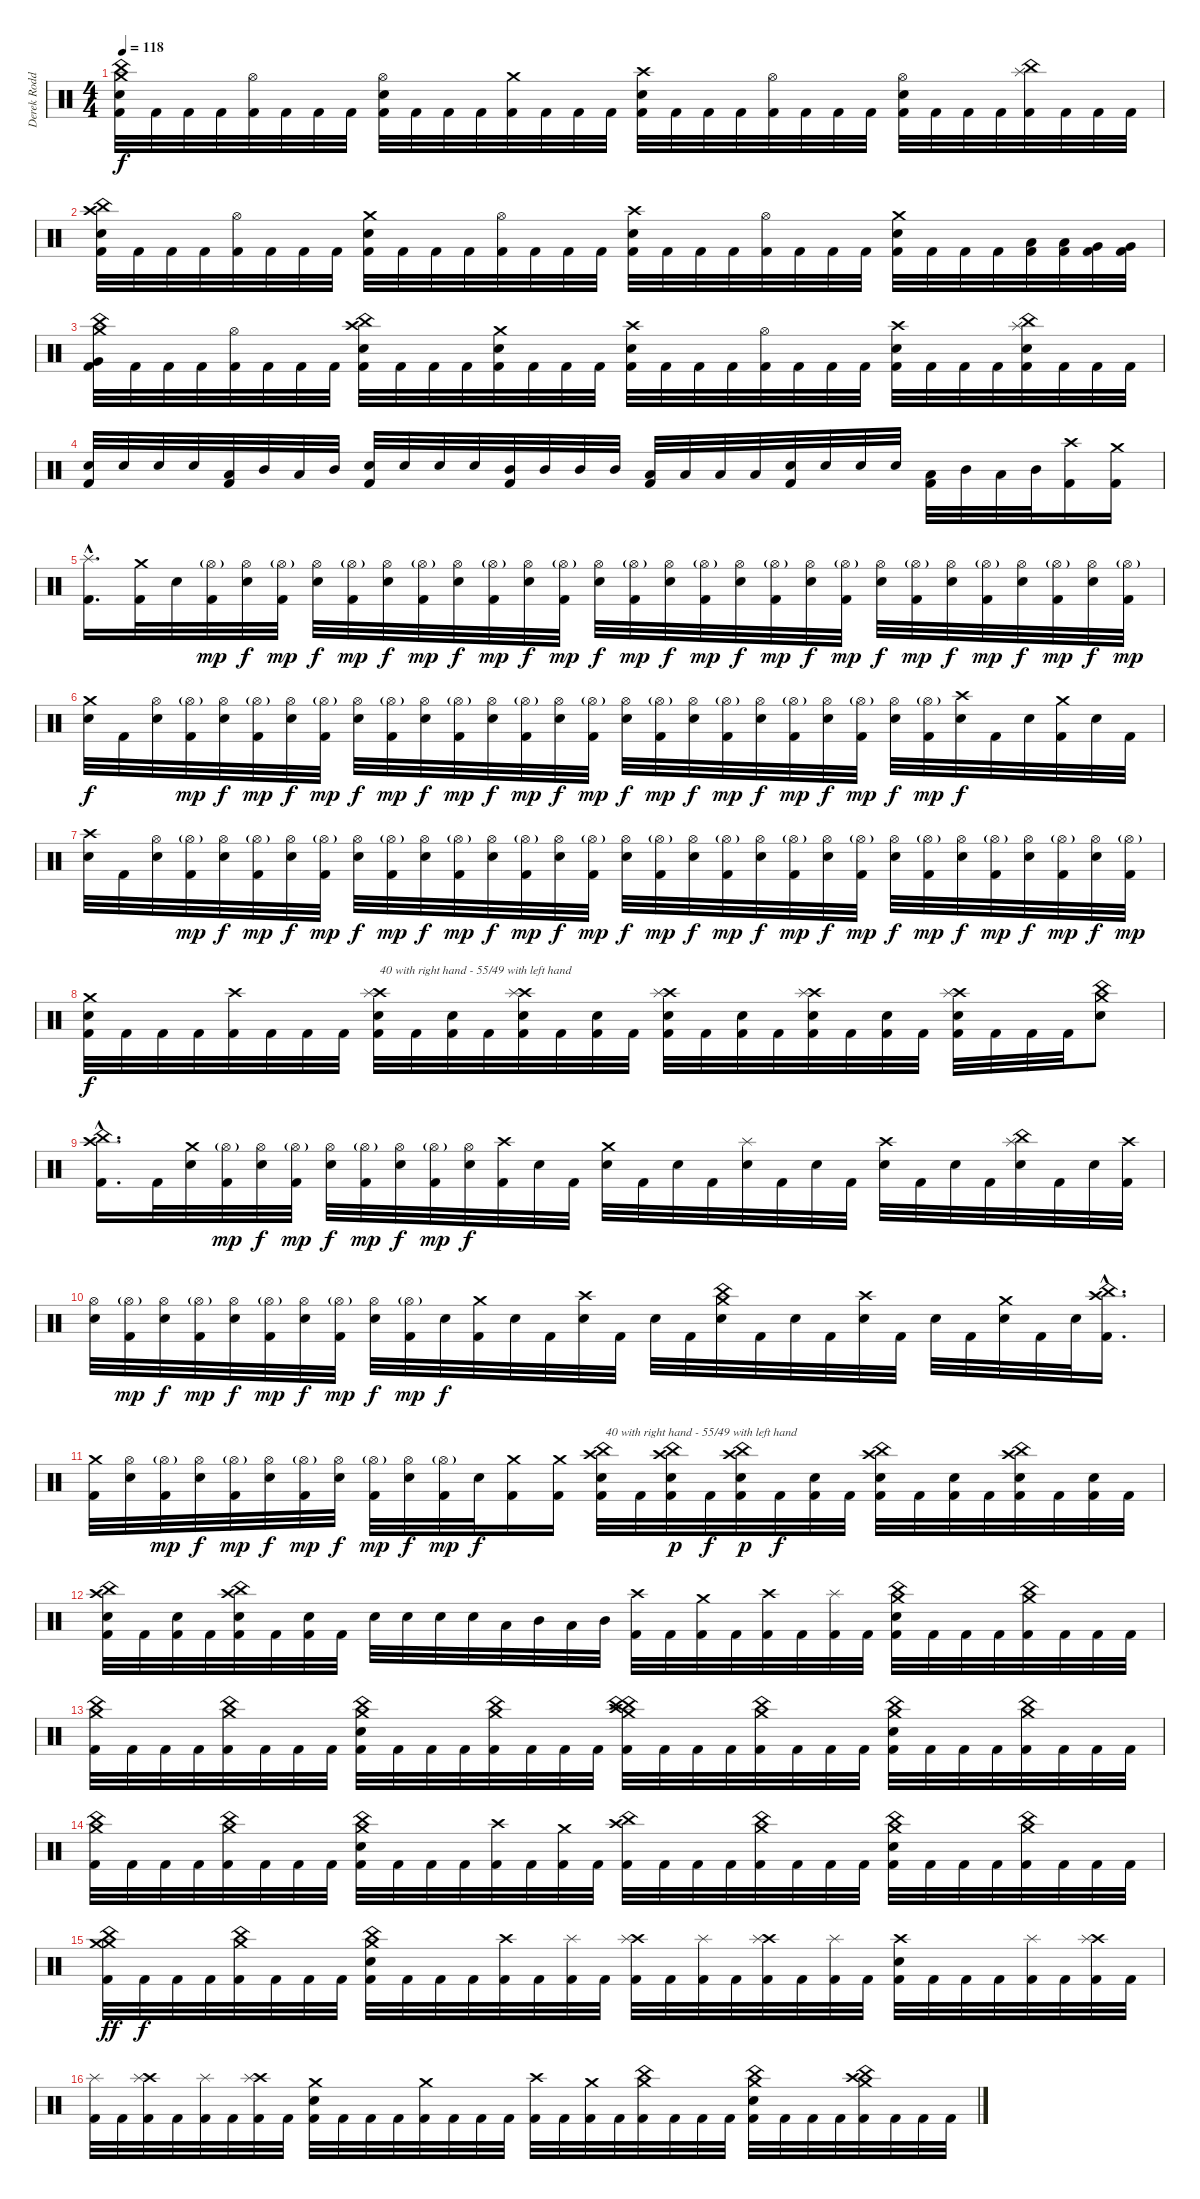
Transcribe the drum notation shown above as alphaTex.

\track ("Derek Roddy" "Derek Rodd") {instrument percussion}
\staff {score}
\articulation defaults
\ts (4 4)
\tempo 118
\clef neutral
\ks c
("Crash medium (hit)" "China (hit)" "Electric Snare (hit)" "Kick (hit) 2").32{dy f} "Kick (hit) 2".32 "Kick (hit) 2".32 "Kick (hit) 2".32 ("Hi-Hat (open)" "Kick (hit) 2").32 "Kick (hit) 2".32 "Kick (hit) 2".32 "Kick (hit) 2".32 ("Hi-Hat (open)" "Electric Snare (hit)" "Kick (hit) 2").32 "Kick (hit) 2".32 "Kick (hit) 2".32 "Kick (hit) 2".32 ("Crash medium (hit)" "Kick (hit) 2").32 "Kick (hit) 2".32 "Kick (hit) 2".32 "Kick (hit) 2".32 ("Crash high (hit)" "Electric Snare (hit)" "Kick (hit) 2").32 "Kick (hit) 2".32 "Kick (hit) 2".32 "Kick (hit) 2".32 ("Hi-Hat (open)" "Kick (hit) 2").32 "Kick (hit) 2".32 "Kick (hit) 2".32 "Kick (hit) 2".32 ("Hi-Hat (open)" "Electric Snare (hit)" "Kick (hit) 2").32 "Kick (hit) 2".32 "Kick (hit) 2".32 "Kick (hit) 2".32 ("Splash (hit)" "China (hit)" "Kick (hit) 2").32 "Kick (hit) 2".32 "Kick (hit) 2".32 "Kick (hit) 2".32 |
("Crash high (hit)" "China (hit)" "Electric Snare (hit)" "Kick (hit) 2").32 "Kick (hit) 2".32 "Kick (hit) 2".32 "Kick (hit) 2".32 ("Hi-Hat (open)" "Kick (hit) 2").32 "Kick (hit) 2".32 "Kick (hit) 2".32 "Kick (hit) 2".32 ("Crash medium (hit)" "Electric Snare (hit)" "Kick (hit) 2").32 "Kick (hit) 2".32 "Kick (hit) 2".32 "Kick (hit) 2".32 ("Hi-Hat (open)" "Kick (hit) 2").32 "Kick (hit) 2".32 "Kick (hit) 2".32 "Kick (hit) 2".32 ("Crash high (hit)" "Electric Snare (hit)" "Kick (hit) 2").32 "Kick (hit) 2".32 "Kick (hit) 2".32 "Kick (hit) 2".32 ("Hi-Hat (open)" "Kick (hit) 2").32 "Kick (hit) 2".32 "Kick (hit) 2".32 "Kick (hit) 2".32 ("Crash medium (hit)" "Electric Snare (hit)" "Kick (hit) 2").32 "Kick (hit) 2".32 "Kick (hit) 2".32 "Kick (hit) 2".32 ("Low Tom (hit)" "Kick (hit) 2").32 ("Low Tom (hit)" "Kick (hit) 2").32 ("Very Low Tom (hit)" "Kick (hit) 2").32 ("Very Low Tom (hit)" "Kick (hit) 2").32 |
("Crash medium (hit)" "China (hit)" "Very Low Tom (hit)" "Kick (hit) 2").32 "Kick (hit) 2".32 "Kick (hit) 2".32 "Kick (hit) 2".32 ("Hi-Hat (open)" "Kick (hit) 2").32 "Kick (hit) 2".32 "Kick (hit) 2".32 "Kick (hit) 2".32 ("Crash high (hit)" "China (hit)" "Electric Snare (hit)" "Kick (hit) 2").32 "Kick (hit) 2".32 "Kick (hit) 2".32 "Kick (hit) 2".32 ("Crash medium (hit)" "Electric Snare (hit)" "Kick (hit) 2").32 "Kick (hit) 2".32 "Kick (hit) 2".32 "Kick (hit) 2".32 ("Crash high (hit)" "Electric Snare (hit)" "Kick (hit) 2").32 "Kick (hit) 2".32 "Kick (hit) 2".32 "Kick (hit) 2".32 ("Hi-Hat (open)" "Kick (hit) 2").32 "Kick (hit) 2".32 "Kick (hit) 2".32 "Kick (hit) 2".32 ("Crash high (hit)" "Electric Snare (hit)" "Kick (hit) 2").32 "Kick (hit) 2".32 "Kick (hit) 2".32 "Kick (hit) 2".32 ("Splash (hit)" "China (hit)" "Electric Snare (hit)" "Kick (hit) 2").32 "Kick (hit) 2".32 "Kick (hit) 2".32 "Kick (hit) 2".32 |
("Electric Snare (hit)" "Kick (hit) 2").32 "Electric Snare (hit)".32 "Electric Snare (hit)".32 "Electric Snare (hit)".32 ("Low Tom (hit)" "Kick (hit) 2").32 "Mid Tom (hit)".32 "Low Tom (hit)".32 "Mid Tom (hit)".32 ("Electric Snare (hit)" "Kick (hit) 2").32 "Electric Snare (hit)".32 "Electric Snare (hit)".32 "Electric Snare (hit)".32 ("Mid Tom (hit)" "Kick (hit) 2").32 "Mid Tom (hit)".32 "Mid Tom (hit)".32 "Mid Tom (hit)".32 ("Low Tom (hit)" "Kick (hit) 2").32 "Low Tom (hit)".32 "Low Tom (hit)".32 "Low Tom (hit)".32 ("Electric Snare (hit)" "Kick (hit) 2").32 "Electric Snare (hit)".32 "Electric Snare (hit)".32 "Electric Snare (hit)".32 ("Low Tom (hit)" "Kick (hit) 2").32 "Mid Tom (hit)".32 "Low Tom (hit)".32 "Mid Tom (hit)".32 ("Crash high (hit)" "Kick (hit) 2").16 ("Crash medium (hit)" "Kick (hit) 2").16 |
("Splash (hit)"{hac} "Kick (hit) 2"{hac}).16{d} ("Crash medium (hit)" "Kick (hit) 2").32 "Electric Snare (hit)".32 ("Hi-Hat (open)"{g} "Kick (hit) 2").32{dy mp} ("Hi-Hat (open)" "Electric Snare (hit)").32{dy f} ("Hi-Hat (open)"{g} "Kick (hit) 2").32{dy mp} ("Hi-Hat (open)" "Electric Snare (hit)").32{dy f} ("Hi-Hat (open)"{g} "Kick (hit) 2").32{dy mp} ("Hi-Hat (open)" "Electric Snare (hit)").32{dy f} ("Hi-Hat (open)"{g} "Kick (hit) 2").32{dy mp} ("Hi-Hat (open)" "Electric Snare (hit)").32{dy f} ("Hi-Hat (open)"{g} "Kick (hit) 2").32{dy mp} ("Hi-Hat (open)" "Electric Snare (hit)").32{dy f} ("Hi-Hat (open)"{g} "Kick (hit) 2").32{dy mp} ("Hi-Hat (open)" "Electric Snare (hit)").32{dy f} ("Hi-Hat (open)"{g} "Kick (hit) 2").32{dy mp} ("Hi-Hat (open)" "Electric Snare (hit)").32{dy f} ("Hi-Hat (open)"{g} "Kick (hit) 2").32{dy mp} ("Hi-Hat (open)" "Electric Snare (hit)").32{dy f} ("Hi-Hat (open)"{g} "Kick (hit) 2").32{dy mp} ("Hi-Hat (open)" "Electric Snare (hit)").32{dy f} ("Hi-Hat (open)"{g} "Kick (hit) 2").32{dy mp} ("Hi-Hat (open)" "Electric Snare (hit)").32{dy f} ("Hi-Hat (open)"{g} "Kick (hit) 2").32{dy mp} ("Hi-Hat (open)" "Electric Snare (hit)").32{dy f} ("Hi-Hat (open)"{g} "Kick (hit) 2").32{dy mp} ("Hi-Hat (open)" "Electric Snare (hit)").32{dy f} ("Hi-Hat (open)"{g} "Kick (hit) 2").32{dy mp} ("Hi-Hat (open)" "Electric Snare (hit)").32{dy f} ("Hi-Hat (open)"{g} "Kick (hit) 2").32{dy mp} |
("Crash medium (hit)" "Electric Snare (hit)").32{dy f} "Kick (hit) 2".32 ("Hi-Hat (open)" "Electric Snare (hit)").32 ("Hi-Hat (open)"{g} "Kick (hit) 2").32{dy mp} ("Hi-Hat (open)" "Electric Snare (hit)").32{dy f} ("Hi-Hat (open)"{g} "Kick (hit) 2").32{dy mp} ("Hi-Hat (open)" "Electric Snare (hit)").32{dy f} ("Hi-Hat (open)"{g} "Kick (hit) 2").32{dy mp} ("Hi-Hat (open)" "Electric Snare (hit)").32{dy f} ("Hi-Hat (open)"{g} "Kick (hit) 2").32{dy mp} ("Hi-Hat (open)" "Electric Snare (hit)").32{dy f} ("Hi-Hat (open)"{g} "Kick (hit) 2").32{dy mp} ("Hi-Hat (open)" "Electric Snare (hit)").32{dy f} ("Hi-Hat (open)"{g} "Kick (hit) 2").32{dy mp} ("Hi-Hat (open)" "Electric Snare (hit)").32{dy f} ("Hi-Hat (open)"{g} "Kick (hit) 2").32{dy mp} ("Hi-Hat (open)" "Electric Snare (hit)").32{dy f} ("Hi-Hat (open)"{g} "Kick (hit) 2").32{dy mp} ("Hi-Hat (open)" "Electric Snare (hit)").32{dy f} ("Hi-Hat (open)"{g} "Kick (hit) 2").32{dy mp} ("Hi-Hat (open)" "Electric Snare (hit)").32{dy f} ("Hi-Hat (open)"{g} "Kick (hit) 2").32{dy mp} ("Hi-Hat (open)" "Electric Snare (hit)").32{dy f} ("Hi-Hat (open)"{g} "Kick (hit) 2").32{dy mp} ("Hi-Hat (open)" "Electric Snare (hit)").32{dy f} ("Hi-Hat (open)"{g} "Kick (hit) 2").32{dy mp} ("Crash high (hit)" "Electric Snare (hit)").32{dy f} "Kick (hit) 2".32 "Electric Snare (hit)".32 ("Crash medium (hit)" "Kick (hit) 2").32 "Electric Snare (hit)".32 "Kick (hit) 2".32 |
("Crash high (hit)" "Electric Snare (hit)").32 "Kick (hit) 2".32 ("Hi-Hat (open)" "Electric Snare (hit)").32 ("Hi-Hat (open)"{g} "Kick (hit) 2").32{dy mp} ("Hi-Hat (open)" "Electric Snare (hit)").32{dy f} ("Hi-Hat (open)"{g} "Kick (hit) 2").32{dy mp} ("Hi-Hat (open)" "Electric Snare (hit)").32{dy f} ("Hi-Hat (open)"{g} "Kick (hit) 2").32{dy mp} ("Hi-Hat (open)" "Electric Snare (hit)").32{dy f} ("Hi-Hat (open)"{g} "Kick (hit) 2").32{dy mp} ("Hi-Hat (open)" "Electric Snare (hit)").32{dy f} ("Hi-Hat (open)"{g} "Kick (hit) 2").32{dy mp} ("Hi-Hat (open)" "Electric Snare (hit)").32{dy f} ("Hi-Hat (open)"{g} "Kick (hit) 2").32{dy mp} ("Hi-Hat (open)" "Electric Snare (hit)").32{dy f} ("Hi-Hat (open)"{g} "Kick (hit) 2").32{dy mp} ("Hi-Hat (open)" "Electric Snare (hit)").32{dy f} ("Hi-Hat (open)"{g} "Kick (hit) 2").32{dy mp} ("Hi-Hat (open)" "Electric Snare (hit)").32{dy f} ("Hi-Hat (open)"{g} "Kick (hit) 2").32{dy mp} ("Hi-Hat (open)" "Electric Snare (hit)").32{dy f} ("Hi-Hat (open)"{g} "Kick (hit) 2").32{dy mp} ("Hi-Hat (open)" "Electric Snare (hit)").32{dy f} ("Hi-Hat (open)"{g} "Kick (hit) 2").32{dy mp} ("Hi-Hat (open)" "Electric Snare (hit)").32{dy f} ("Hi-Hat (open)"{g} "Kick (hit) 2").32{dy mp} ("Hi-Hat (open)" "Electric Snare (hit)").32{dy f} ("Hi-Hat (open)"{g} "Kick (hit) 2").32{dy mp} ("Hi-Hat (open)" "Electric Snare (hit)").32{dy f} ("Hi-Hat (open)"{g} "Kick (hit) 2").32{dy mp} ("Hi-Hat (open)" "Electric Snare (hit)").32{dy f} ("Hi-Hat (open)"{g} "Kick (hit) 2").32{dy mp} |
("Crash medium (hit)" "Electric Snare (hit)" "Kick (hit) 2").32{dy f} "Kick (hit) 2".32 "Kick (hit) 2".32 "Kick (hit) 2".32 ("Crash high (hit)" "Kick (hit) 2").32 "Kick (hit) 2".32 "Kick (hit) 2".32 "Kick (hit) 2".32 ("Crash high (hit)" "Splash (hit)" "Electric Snare (hit)" "Kick (hit) 2").32{txt "40 with right hand - 55/49 with left hand"} "Kick (hit) 2".32 ("Electric Snare (hit)" "Kick (hit) 2").32 "Kick (hit) 2".32 ("Crash high (hit)" "Splash (hit)" "Electric Snare (hit)" "Kick (hit) 2").32 "Kick (hit) 2".32 ("Electric Snare (hit)" "Kick (hit) 2").32 "Kick (hit) 2".32 ("Crash high (hit)" "Splash (hit)" "Electric Snare (hit)" "Kick (hit) 2").32 "Kick (hit) 2".32 ("Electric Snare (hit)" "Kick (hit) 2").32 "Kick (hit) 2".32 ("Crash high (hit)" "Splash (hit)" "Electric Snare (hit)" "Kick (hit) 2").32 "Kick (hit) 2".32 ("Electric Snare (hit)" "Kick (hit) 2").32 "Kick (hit) 2".32 ("Crash high (hit)" "Splash (hit)" "Electric Snare (hit)" "Kick (hit) 2").32 "Kick (hit) 2".32 "Kick (hit) 2".32 "Kick (hit) 2".32 ("Crash medium (hit)" "China (hit)" "Electric Snare (hit)").8 |
("Crash high (hit)"{hac} "China (hit)"{hac} "Kick (hit) 2"{hac}).16{d} "Kick (hit) 2".32 ("Crash medium (hit)" "Electric Snare (hit)").32 ("Hi-Hat (open)"{g} "Kick (hit) 2").32{dy mp} ("Hi-Hat (open)" "Electric Snare (hit)").32{dy f} ("Hi-Hat (open)"{g} "Kick (hit) 2").32{dy mp} ("Hi-Hat (open)" "Electric Snare (hit)").32{dy f} ("Hi-Hat (open)"{g} "Kick (hit) 2").32{dy mp} ("Hi-Hat (open)" "Electric Snare (hit)").32{dy f} ("Hi-Hat (open)"{g} "Kick (hit) 2").32{dy mp} ("Hi-Hat (open)" "Electric Snare (hit)").32{dy f} ("Crash high (hit)" "Kick (hit) 2").32 "Electric Snare (hit)".32 "Kick (hit) 2".32 ("Crash medium (hit)" "Electric Snare (hit)").32 "Kick (hit) 2".32 "Electric Snare (hit)".32 "Kick (hit) 2".32 ("Splash (hit)" "Electric Snare (hit)").32 "Kick (hit) 2".32 "Electric Snare (hit)".32 "Kick (hit) 2".32 ("Crash high (hit)" "Electric Snare (hit)").32 "Kick (hit) 2".32 "Electric Snare (hit)".32 "Kick (hit) 2".32 ("Splash (hit)" "China (hit)" "Electric Snare (hit)").32 "Kick (hit) 2".32 "Electric Snare (hit)".32 ("Crash high (hit)" "Kick (hit) 2").32 |
("Hi-Hat (open)" "Electric Snare (hit)").32 ("Hi-Hat (open)"{g} "Kick (hit) 2").32{dy mp} ("Hi-Hat (open)" "Electric Snare (hit)").32{dy f} ("Hi-Hat (open)"{g} "Kick (hit) 2").32{dy mp} ("Hi-Hat (open)" "Electric Snare (hit)").32{dy f} ("Hi-Hat (open)"{g} "Kick (hit) 2").32{dy mp} ("Hi-Hat (open)" "Electric Snare (hit)").32{dy f} ("Hi-Hat (open)"{g} "Kick (hit) 2").32{dy mp} ("Hi-Hat (open)" "Electric Snare (hit)").32{dy f} ("Hi-Hat (open)"{g} "Kick (hit) 2").32{dy mp} "Electric Snare (hit)".32{dy f} ("Crash medium (hit)" "Kick (hit) 2").32 "Electric Snare (hit)".32 "Kick (hit) 2".32 ("Crash high (hit)" "Electric Snare (hit)").32 "Kick (hit) 2".32 "Electric Snare (hit)".32 "Kick (hit) 2".32 ("Crash medium (hit)" "China (hit)" "Electric Snare (hit)").32 "Kick (hit) 2".32 "Electric Snare (hit)".32 "Kick (hit) 2".32 ("Crash high (hit)" "Electric Snare (hit)").32 "Kick (hit) 2".32 "Electric Snare (hit)".32 "Kick (hit) 2".32 ("Crash medium (hit)" "Electric Snare (hit)").32 "Kick (hit) 2".32 "Electric Snare (hit)".32 ("Crash high (hit)"{hac} "China (hit)"{hac} "Kick (hit) 2"{hac}).16{d} |
("Crash medium (hit)" "Kick (hit) 2").32 ("Hi-Hat (open)" "Electric Snare (hit)").32 ("Hi-Hat (open)"{g} "Kick (hit) 2").32{dy mp} ("Hi-Hat (open)" "Electric Snare (hit)").32{dy f} ("Hi-Hat (open)"{g} "Kick (hit) 2").32{dy mp} ("Hi-Hat (open)" "Electric Snare (hit)").32{dy f} ("Hi-Hat (open)"{g} "Kick (hit) 2").32{dy mp} ("Hi-Hat (open)" "Electric Snare (hit)").32{dy f} ("Hi-Hat (open)"{g} "Kick (hit) 2").32{dy mp} ("Hi-Hat (open)" "Electric Snare (hit)").32{dy f} ("Hi-Hat (open)"{g} "Kick (hit) 2").32{dy mp} "Electric Snare (hit)".32{dy f} ("Crash medium (hit)" "Kick (hit) 2").16 ("Crash medium (hit)" "Kick (hit) 2").16 ("Crash high (hit)" "China (hit)" "Electric Snare (hit)" "Kick (hit) 2").32{txt "40 with right hand - 55/49 with left hand"} "Kick (hit) 2".32 ("Crash high (hit)" "China (hit)" "Electric Snare (hit)" "Kick (hit) 2").32{dy p} "Kick (hit) 2".32{dy f} ("Crash high (hit)" "China (hit)" "Electric Snare (hit)" "Kick (hit) 2").32{dy p} "Kick (hit) 2".32{dy f} ("Electric Snare (hit)" "Kick (hit) 2").32 "Kick (hit) 2".32 ("Crash high (hit)" "China (hit)" "Electric Snare (hit)" "Kick (hit) 2").32 "Kick (hit) 2".32 ("Electric Snare (hit)" "Kick (hit) 2").32 "Kick (hit) 2".32 ("Crash high (hit)" "China (hit)" "Electric Snare (hit)" "Kick (hit) 2").32 "Kick (hit) 2".32 ("Electric Snare (hit)" "Kick (hit) 2").32 "Kick (hit) 2".32 |
("Crash high (hit)" "China (hit)" "Electric Snare (hit)" "Kick (hit) 2").32 "Kick (hit) 2".32 ("Electric Snare (hit)" "Kick (hit) 2").32 "Kick (hit) 2".32 ("Crash high (hit)" "China (hit)" "Electric Snare (hit)" "Kick (hit) 2").32 "Kick (hit) 2".32 ("Electric Snare (hit)" "Kick (hit) 2").32 "Kick (hit) 2".32 "Electric Snare (hit)".32 "Electric Snare (hit)".32 "Electric Snare (hit)".32 "Electric Snare (hit)".32 "Low Tom (hit)".32 "Mid Tom (hit)".32 "Low Tom (hit)".32 "Mid Tom (hit)".32 ("Crash high (hit)" "Kick (hit) 2").32 "Kick (hit) 2".32 ("Crash medium (hit)" "Kick (hit) 2").32 "Kick (hit) 2".32 ("Crash high (hit)" "Kick (hit) 2").32 "Kick (hit) 2".32 ("Splash (hit)" "Kick (hit) 2").32 "Kick (hit) 2".32 ("Crash medium (hit)" "China (hit)" "Electric Snare (hit)" "Kick (hit) 2").32 "Kick (hit) 2".32 "Kick (hit) 2".32 "Kick (hit) 2".32 ("Crash medium (hit)" "China (hit)" "Kick (hit) 2").32 "Kick (hit) 2".32 "Kick (hit) 2".32 "Kick (hit) 2".32 |
("Crash medium (hit)" "China (hit)" "Kick (hit) 2").32 "Kick (hit) 2".32 "Kick (hit) 2".32 "Kick (hit) 2".32 ("Crash medium (hit)" "China (hit)" "Kick (hit) 2").32 "Kick (hit) 2".32 "Kick (hit) 2".32 "Kick (hit) 2".32 ("Crash medium (hit)" "China (hit)" "Electric Snare (hit)" "Kick (hit) 2").32 "Kick (hit) 2".32 "Kick (hit) 2".32 "Kick (hit) 2".32 ("Crash medium (hit)" "China (hit)" "Kick (hit) 2").32 "Kick (hit) 2".32 "Kick (hit) 2".32 "Kick (hit) 2".32 ("Crash medium (hit)" "China (hit)" "Crash high (hit)" "China (hit)" "Kick (hit) 2").32 "Kick (hit) 2".32 "Kick (hit) 2".32 "Kick (hit) 2".32 ("Crash medium (hit)" "China (hit)" "Kick (hit) 2").32 "Kick (hit) 2".32 "Kick (hit) 2".32 "Kick (hit) 2".32 ("Crash medium (hit)" "China (hit)" "Electric Snare (hit)" "Kick (hit) 2").32 "Kick (hit) 2".32 "Kick (hit) 2".32 "Kick (hit) 2".32 ("Crash medium (hit)" "China (hit)" "Kick (hit) 2").32 "Kick (hit) 2".32 "Kick (hit) 2".32 "Kick (hit) 2".32 |
("Crash medium (hit)" "China (hit)" "Kick (hit) 2").32 "Kick (hit) 2".32 "Kick (hit) 2".32 "Kick (hit) 2".32 ("Crash medium (hit)" "China (hit)" "Kick (hit) 2").32 "Kick (hit) 2".32 "Kick (hit) 2".32 "Kick (hit) 2".32 ("Crash medium (hit)" "China (hit)" "Electric Snare (hit)" "Kick (hit) 2").32 "Kick (hit) 2".32 "Kick (hit) 2".32 "Kick (hit) 2".32 ("Crash high (hit)" "Kick (hit) 2").32 "Kick (hit) 2".32 ("Crash medium (hit)" "Kick (hit) 2").32 "Kick (hit) 2".32 ("Crash high (hit)" "China (hit)" "Kick (hit) 2").32 "Kick (hit) 2".32 "Kick (hit) 2".32 "Kick (hit) 2".32 ("Crash medium (hit)" "China (hit)" "Kick (hit) 2").32 "Kick (hit) 2".32 "Kick (hit) 2".32 "Kick (hit) 2".32 ("Crash medium (hit)" "China (hit)" "Electric Snare (hit)" "Kick (hit) 2").32 "Kick (hit) 2".32 "Kick (hit) 2".32 "Kick (hit) 2".32 ("Crash medium (hit)" "China (hit)" "Kick (hit) 2").32 "Kick (hit) 2".32 "Kick (hit) 2".32 "Kick (hit) 2".32 |
("Crash medium (hit)" "Crash medium (hit)" "China (hit)" "Kick (hit) 2").32{dy ff} "Kick (hit) 2".32{dy f} "Kick (hit) 2".32 "Kick (hit) 2".32 ("Crash medium (hit)" "China (hit)" "Kick (hit) 2").32 "Kick (hit) 2".32 "Kick (hit) 2".32 "Kick (hit) 2".32 ("Crash medium (hit)" "China (hit)" "Electric Snare (hit)" "Kick (hit) 2").32 "Kick (hit) 2".32 "Kick (hit) 2".32 "Kick (hit) 2".32 ("Crash high (hit)" "Kick (hit) 2").32 "Kick (hit) 2".32 ("Splash (hit)" "Kick (hit) 2").32 "Kick (hit) 2".32 ("Crash high (hit)" "Splash (hit)" "Kick (hit) 2").32 "Kick (hit) 2".32 ("Splash (hit)" "Kick (hit) 2").32 "Kick (hit) 2".32 ("Crash high (hit)" "Splash (hit)" "Kick (hit) 2").32 "Kick (hit) 2".32 ("Splash (hit)" "Kick (hit) 2").32 "Kick (hit) 2".32 ("Crash high (hit)" "Electric Snare (hit)" "Kick (hit) 2").32 "Kick (hit) 2".32 "Kick (hit) 2".32 "Kick (hit) 2".32 ("Splash (hit)" "Kick (hit) 2").32 "Kick (hit) 2".32 ("Crash high (hit)" "Splash (hit)" "Kick (hit) 2").32 "Kick (hit) 2".32 |
("Splash (hit)" "Kick (hit) 2").32 "Kick (hit) 2".32 ("Crash high (hit)" "Splash (hit)" "Kick (hit) 2").32 "Kick (hit) 2".32 ("Splash (hit)" "Kick (hit) 2").32 "Kick (hit) 2".32 ("Crash high (hit)" "Splash (hit)" "Kick (hit) 2").32 "Kick (hit) 2".32 ("Crash medium (hit)" "Electric Snare (hit)" "Kick (hit) 2").32 "Kick (hit) 2".32 "Kick (hit) 2".32 "Kick (hit) 2".32 ("Crash medium (hit)" "Kick (hit) 2").32 "Kick (hit) 2".32 "Kick (hit) 2".32 "Kick (hit) 2".32 ("Crash high (hit)" "Kick (hit) 2").32 "Kick (hit) 2".32 ("Crash medium (hit)" "Kick (hit) 2").32 "Kick (hit) 2".32 ("Crash medium (hit)" "China (hit)" "Kick (hit) 2").32 "Kick (hit) 2".32 "Kick (hit) 2".32 "Kick (hit) 2".32 ("Crash medium (hit)" "China (hit)" "Electric Snare (hit)" "Kick (hit) 2").32 "Kick (hit) 2".32 "Kick (hit) 2".32 "Kick (hit) 2".32 ("Crash medium (hit)" "China (hit)" "Crash high (hit)" "Kick (hit) 2").32 "Kick (hit) 2".32 "Kick (hit) 2".32 "Kick (hit) 2".32
